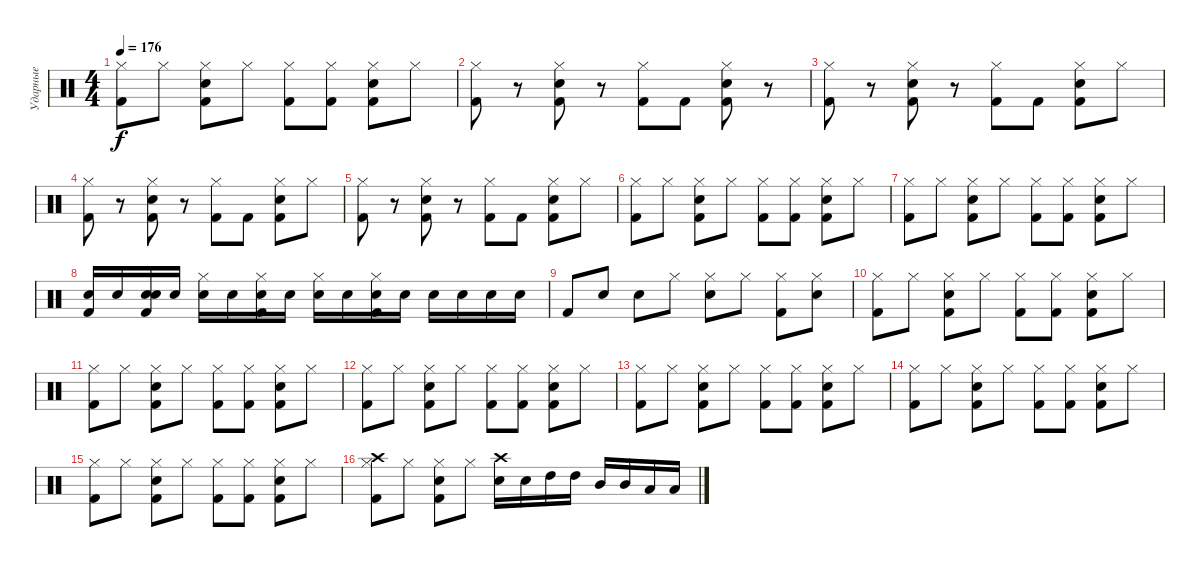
\track ("Ударные" "Ударные") {instrument percussion}
\staff {score}
\articulation defaults
\ts (4 4)
\tempo 176
\clef neutral
\ks c
("Hi-Hat (closed)" "Kick (hit) 2").8{dy f} "Hi-Hat (closed)".8 ("Hi-Hat (closed)" "Kick (hit) 2" "Snare (hit) 2").8 "Hi-Hat (closed)".8 ("Hi-Hat (closed)" "Kick (hit) 2").8 ("Hi-Hat (closed)" "Kick (hit) 2").8 ("Hi-Hat (closed)" "Kick (hit) 2" "Snare (hit) 2").8 "Hi-Hat (closed)".8 |
("Hi-Hat (closed)" "Kick (hit) 2").8 r.8 ("Hi-Hat (closed)" "Kick (hit) 2" "Snare (hit) 2").8 r.8 ("Hi-Hat (closed)" "Kick (hit) 2").8 "Kick (hit) 2".8 ("Hi-Hat (closed)" "Kick (hit) 2" "Snare (hit) 2").8 r.8 |
("Hi-Hat (closed)" "Kick (hit) 2").8 r.8 ("Hi-Hat (closed)" "Kick (hit) 2" "Snare (hit) 2").8 r.8 ("Hi-Hat (closed)" "Kick (hit) 2").8 "Kick (hit) 2".8 ("Hi-Hat (closed)" "Kick (hit) 2" "Snare (hit) 2").8 "Hi-Hat (closed)".8 |
("Hi-Hat (closed)" "Kick (hit) 2").8 r.8 ("Hi-Hat (closed)" "Kick (hit) 2" "Snare (hit) 2").8 r.8 ("Hi-Hat (closed)" "Kick (hit) 2").8 "Kick (hit) 2".8 ("Hi-Hat (closed)" "Kick (hit) 2" "Snare (hit) 2").8 "Hi-Hat (closed)".8 |
("Hi-Hat (closed)" "Kick (hit) 2").8 r.8 ("Hi-Hat (closed)" "Kick (hit) 2" "Snare (hit) 2").8 r.8 ("Hi-Hat (closed)" "Kick (hit) 2").8 "Kick (hit) 2".8 ("Hi-Hat (closed)" "Kick (hit) 2" "Snare (hit) 2").8 "Hi-Hat (closed)".8 |
("Hi-Hat (closed)" "Kick (hit) 2").8 "Hi-Hat (closed)".8 ("Hi-Hat (closed)" "Kick (hit) 2" "Snare (hit) 2").8 "Hi-Hat (closed)".8 ("Hi-Hat (closed)" "Kick (hit) 2").8 ("Hi-Hat (closed)" "Kick (hit) 2").8 ("Hi-Hat (closed)" "Kick (hit) 2" "Snare (hit) 2").8 "Hi-Hat (closed)".8 |
("Hi-Hat (closed)" "Kick (hit) 2").8 "Hi-Hat (closed)".8 ("Hi-Hat (closed)" "Kick (hit) 2" "Snare (hit) 2").8 "Hi-Hat (closed)".8 ("Hi-Hat (closed)" "Kick (hit) 2").8 ("Hi-Hat (closed)" "Kick (hit) 2").8 ("Hi-Hat (closed)" "Kick (hit) 2" "Snare (hit) 2").8 "Hi-Hat (closed)".8 |
("Snare (hit) 2" "Kick (hit) 2").16 "Snare (hit) 2".16 ("Snare (hit) 2" "Kick (hit) 2" "Snare (hit) 2").16 "Snare (hit) 2".16 ("Snare (hit) 2" "Hi-Hat (closed)").16 "Snare (hit) 2".16 ("Snare (hit) 2" "Hi-Hat (closed)" "Kick (hit) 2").16 "Snare (hit) 2".16 ("Snare (hit) 2" "Hi-Hat (closed)").16 "Snare (hit) 2".16 ("Snare (hit) 2" "Hi-Hat (closed)" "Kick (hit) 2").16 "Snare (hit) 2".16 "Snare (hit) 2".16 "Snare (hit) 2".16 "Snare (hit) 2".16 "Snare (hit) 2".16 |
"Kick (hit) 2".8 "Snare (hit) 2".8 "Snare (hit) 2".8 "Hi-Hat (closed)".8 ("Hi-Hat (closed)" "Snare (hit) 2").8 "Hi-Hat (closed)".8 ("Hi-Hat (closed)" "Kick (hit) 2").8 ("Hi-Hat (closed)" "Snare (hit) 2").8 |
("Hi-Hat (closed)" "Kick (hit) 2").8 "Hi-Hat (closed)".8 ("Hi-Hat (closed)" "Kick (hit) 2" "Snare (hit) 2").8 "Hi-Hat (closed)".8 ("Hi-Hat (closed)" "Kick (hit) 2").8 ("Hi-Hat (closed)" "Kick (hit) 2").8 ("Hi-Hat (closed)" "Kick (hit) 2" "Snare (hit) 2").8 "Hi-Hat (closed)".8 |
("Hi-Hat (closed)" "Kick (hit) 2").8 "Hi-Hat (closed)".8 ("Hi-Hat (closed)" "Kick (hit) 2" "Snare (hit) 2").8 "Hi-Hat (closed)".8 ("Hi-Hat (closed)" "Kick (hit) 2").8 ("Hi-Hat (closed)" "Kick (hit) 2").8 ("Hi-Hat (closed)" "Kick (hit) 2" "Snare (hit) 2").8 "Hi-Hat (closed)".8 |
("Hi-Hat (closed)" "Kick (hit) 2").8 "Hi-Hat (closed)".8 ("Hi-Hat (closed)" "Kick (hit) 2" "Snare (hit) 2").8 "Hi-Hat (closed)".8 ("Hi-Hat (closed)" "Kick (hit) 2").8 ("Hi-Hat (closed)" "Kick (hit) 2").8 ("Hi-Hat (closed)" "Kick (hit) 2" "Snare (hit) 2").8 "Hi-Hat (closed)".8 |
("Hi-Hat (closed)" "Kick (hit) 2").8 "Hi-Hat (closed)".8 ("Hi-Hat (closed)" "Kick (hit) 2" "Snare (hit) 2").8 "Hi-Hat (closed)".8 ("Hi-Hat (closed)" "Kick (hit) 2").8 ("Hi-Hat (closed)" "Kick (hit) 2").8 ("Hi-Hat (closed)" "Kick (hit) 2" "Snare (hit) 2").8 "Hi-Hat (closed)".8 |
("Hi-Hat (closed)" "Kick (hit) 2").8 "Hi-Hat (closed)".8 ("Hi-Hat (closed)" "Kick (hit) 2" "Snare (hit) 2").8 "Hi-Hat (closed)".8 ("Hi-Hat (closed)" "Kick (hit) 2").8 ("Hi-Hat (closed)" "Kick (hit) 2").8 ("Hi-Hat (closed)" "Kick (hit) 2" "Snare (hit) 2").8 "Hi-Hat (closed)".8 |
("Hi-Hat (closed)" "Kick (hit) 2").8 "Hi-Hat (closed)".8 ("Hi-Hat (closed)" "Kick (hit) 2" "Snare (hit) 2").8 "Hi-Hat (closed)".8 ("Hi-Hat (closed)" "Kick (hit) 2").8 ("Hi-Hat (closed)" "Kick (hit) 2").8 ("Hi-Hat (closed)" "Kick (hit) 2" "Snare (hit) 2").8 "Hi-Hat (closed)".8 |
("Hi-Hat (closed)" "Kick (hit) 2" "Crash high (hit)").8 "Hi-Hat (closed)".8 ("Hi-Hat (closed)" "Kick (hit) 2" "Snare (hit) 2").8 "Hi-Hat (closed)".8 ("Snare (hit) 2" "Crash high (hit)").16 "Snare (hit) 2".16 "High Tom (hit)".16 "High Tom (hit)".16 "Mid Tom (hit)".16 "Mid Tom (hit)".16 "Low Tom (hit)".16 "Low Tom (hit)".16
